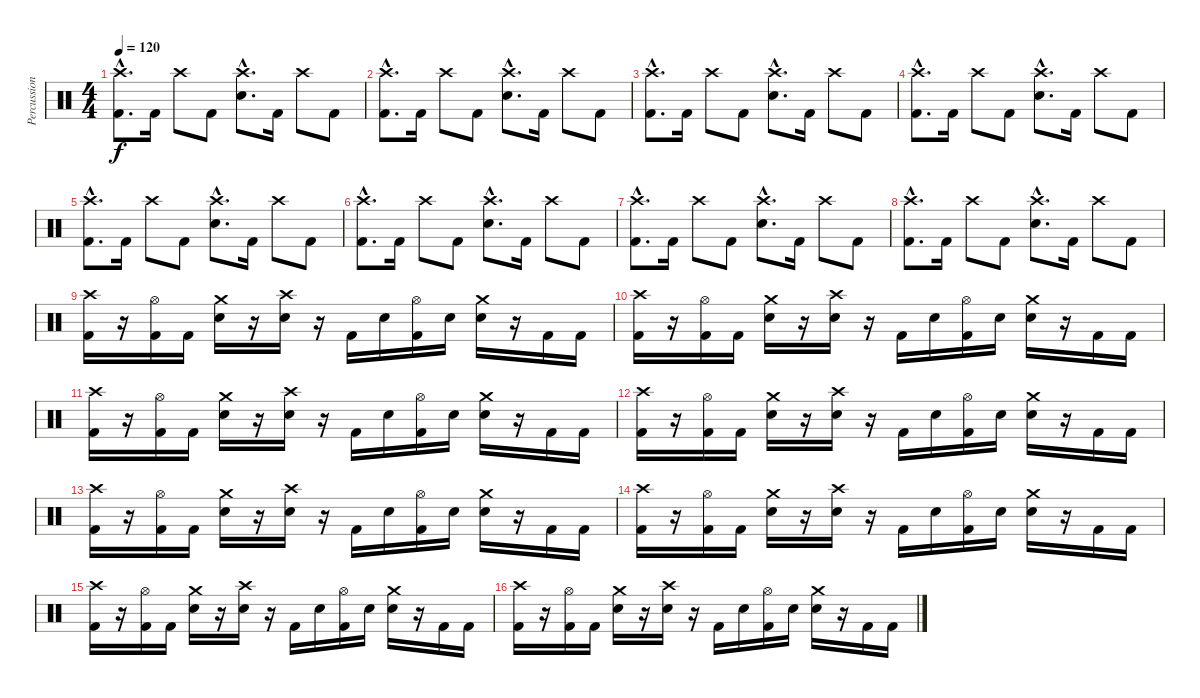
\track ("Percussion" "Percussion") {instrument percussion}
\staff {score}
\articulation defaults
\ts (4 4)
\tempo 120
\clef neutral
\ks c
("Crash high (hit)"{hac} "Kick (hit) 2"{hac}).8{d dy f} "Kick (hit) 2".16 "Crash high (hit)".8 "Kick (hit) 2".8 ("Crash high (hit)"{hac} "Electric Snare (hit)"{hac}).8{d} "Kick (hit) 2".16 "Crash high (hit)".8 "Kick (hit) 2".8 |
("Crash high (hit)"{hac} "Kick (hit) 2"{hac}).8{d} "Kick (hit) 2".16 "Crash high (hit)".8 "Kick (hit) 2".8 ("Crash high (hit)"{hac} "Electric Snare (hit)"{hac}).8{d} "Kick (hit) 2".16 "Crash high (hit)".8 "Kick (hit) 2".8 |
("Crash high (hit)"{hac} "Kick (hit) 2"{hac}).8{d} "Kick (hit) 2".16 "Crash high (hit)".8 "Kick (hit) 2".8 ("Crash high (hit)"{hac} "Electric Snare (hit)"{hac}).8{d} "Kick (hit) 2".16 "Crash high (hit)".8 "Kick (hit) 2".8 |
("Crash high (hit)"{hac} "Kick (hit) 2"{hac}).8{d} "Kick (hit) 2".16 "Crash high (hit)".8 "Kick (hit) 2".8 ("Crash high (hit)"{hac} "Electric Snare (hit)"{hac}).8{d} "Kick (hit) 2".16 "Crash high (hit)".8 "Kick (hit) 2".8 |
("Crash high (hit)"{hac} "Kick (hit) 2"{hac}).8{d} "Kick (hit) 2".16 "Crash high (hit)".8 "Kick (hit) 2".8 ("Crash high (hit)"{hac} "Electric Snare (hit)"{hac}).8{d} "Kick (hit) 2".16 "Crash high (hit)".8 "Kick (hit) 2".8 |
("Crash high (hit)"{hac} "Kick (hit) 2"{hac}).8{d} "Kick (hit) 2".16 "Crash high (hit)".8 "Kick (hit) 2".8 ("Crash high (hit)"{hac} "Electric Snare (hit)"{hac}).8{d} "Kick (hit) 2".16 "Crash high (hit)".8 "Kick (hit) 2".8 |
("Crash high (hit)"{hac} "Kick (hit) 2"{hac}).8{d} "Kick (hit) 2".16 "Crash high (hit)".8 "Kick (hit) 2".8 ("Crash high (hit)"{hac} "Electric Snare (hit)"{hac}).8{d} "Kick (hit) 2".16 "Crash high (hit)".8 "Kick (hit) 2".8 |
("Crash high (hit)"{hac} "Kick (hit) 2"{hac}).8{d} "Kick (hit) 2".16 "Crash high (hit)".8 "Kick (hit) 2".8 ("Crash high (hit)"{hac} "Electric Snare (hit)"{hac}).8{d} "Kick (hit) 2".16 "Crash high (hit)".8 "Kick (hit) 2".8 |
("Crash high (hit)" "Kick (hit) 2").16 r.16 ("Hi-Hat (open)" "Kick (hit) 2").16 "Kick (hit) 2".16 ("Crash medium (hit)" "Electric Snare (hit)").16 r.16 ("Crash high (hit)" "Electric Snare (hit)").16 r.16 "Kick (hit) 2".16 "Electric Snare (hit)".16 ("Hi-Hat (open)" "Kick (hit) 2").16 "Electric Snare (hit)".16 ("Crash medium (hit)" "Electric Snare (hit)").16 r.16 "Kick (hit) 2".16 "Kick (hit) 2".16 |
("Crash high (hit)" "Kick (hit) 2").16 r.16 ("Hi-Hat (open)" "Kick (hit) 2").16 "Kick (hit) 2".16 ("Crash medium (hit)" "Electric Snare (hit)").16 r.16 ("Crash high (hit)" "Electric Snare (hit)").16 r.16 "Kick (hit) 2".16 "Electric Snare (hit)".16 ("Hi-Hat (open)" "Kick (hit) 2").16 "Electric Snare (hit)".16 ("Crash medium (hit)" "Electric Snare (hit)").16 r.16 "Kick (hit) 2".16 "Kick (hit) 2".16 |
("Crash high (hit)" "Kick (hit) 2").16 r.16 ("Hi-Hat (open)" "Kick (hit) 2").16 "Kick (hit) 2".16 ("Crash medium (hit)" "Electric Snare (hit)").16 r.16 ("Crash high (hit)" "Electric Snare (hit)").16 r.16 "Kick (hit) 2".16 "Electric Snare (hit)".16 ("Hi-Hat (open)" "Kick (hit) 2").16 "Electric Snare (hit)".16 ("Crash medium (hit)" "Electric Snare (hit)").16 r.16 "Kick (hit) 2".16 "Kick (hit) 2".16 |
("Crash high (hit)" "Kick (hit) 2").16 r.16 ("Hi-Hat (open)" "Kick (hit) 2").16 "Kick (hit) 2".16 ("Crash medium (hit)" "Electric Snare (hit)").16 r.16 ("Crash high (hit)" "Electric Snare (hit)").16 r.16 "Kick (hit) 2".16 "Electric Snare (hit)".16 ("Hi-Hat (open)" "Kick (hit) 2").16 "Electric Snare (hit)".16 ("Crash medium (hit)" "Electric Snare (hit)").16 r.16 "Kick (hit) 2".16 "Kick (hit) 2".16 |
("Crash high (hit)" "Kick (hit) 2").16 r.16 ("Hi-Hat (open)" "Kick (hit) 2").16 "Kick (hit) 2".16 ("Crash medium (hit)" "Electric Snare (hit)").16 r.16 ("Crash high (hit)" "Electric Snare (hit)").16 r.16 "Kick (hit) 2".16 "Electric Snare (hit)".16 ("Hi-Hat (open)" "Kick (hit) 2").16 "Electric Snare (hit)".16 ("Crash medium (hit)" "Electric Snare (hit)").16 r.16 "Kick (hit) 2".16 "Kick (hit) 2".16 |
("Crash high (hit)" "Kick (hit) 2").16 r.16 ("Hi-Hat (open)" "Kick (hit) 2").16 "Kick (hit) 2".16 ("Crash medium (hit)" "Electric Snare (hit)").16 r.16 ("Crash high (hit)" "Electric Snare (hit)").16 r.16 "Kick (hit) 2".16 "Electric Snare (hit)".16 ("Hi-Hat (open)" "Kick (hit) 2").16 "Electric Snare (hit)".16 ("Crash medium (hit)" "Electric Snare (hit)").16 r.16 "Kick (hit) 2".16 "Kick (hit) 2".16 |
("Crash high (hit)" "Kick (hit) 2").16 r.16 ("Hi-Hat (open)" "Kick (hit) 2").16 "Kick (hit) 2".16 ("Crash medium (hit)" "Electric Snare (hit)").16 r.16 ("Crash high (hit)" "Electric Snare (hit)").16 r.16 "Kick (hit) 2".16 "Electric Snare (hit)".16 ("Hi-Hat (open)" "Kick (hit) 2").16 "Electric Snare (hit)".16 ("Crash medium (hit)" "Electric Snare (hit)").16 r.16 "Kick (hit) 2".16 "Kick (hit) 2".16 |
("Crash high (hit)" "Kick (hit) 2").16 r.16 ("Hi-Hat (open)" "Kick (hit) 2").16 "Kick (hit) 2".16 ("Crash medium (hit)" "Electric Snare (hit)").16 r.16 ("Crash high (hit)" "Electric Snare (hit)").16 r.16 "Kick (hit) 2".16 "Electric Snare (hit)".16 ("Hi-Hat (open)" "Kick (hit) 2").16 "Electric Snare (hit)".16 ("Crash medium (hit)" "Electric Snare (hit)").16 r.16 "Kick (hit) 2".16 "Kick (hit) 2".16
